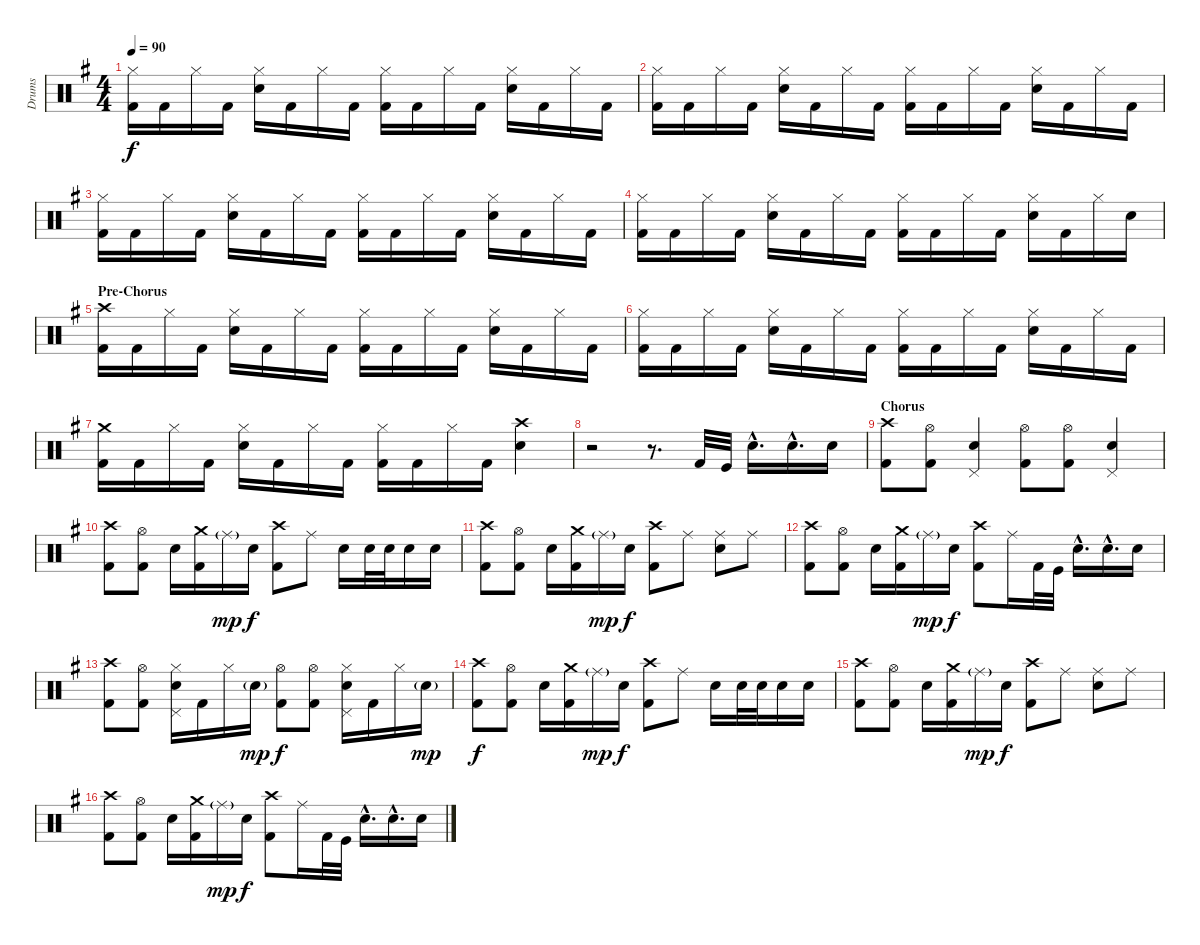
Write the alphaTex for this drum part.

\track ("Drums" "Drums") {instrument percussion}
\staff {score}
\articulation defaults
\ts (4 4)
\tempo 90
\clef neutral
\ks g
("Hi-Hat (closed)" "Kick (hit) 2").16{dy f} "Kick (hit) 2".16 "Hi-Hat (closed)".16 "Kick (hit) 2".16 ("Hi-Hat (closed)" "Electric Snare (hit)").16 "Kick (hit) 2".16 "Hi-Hat (closed)".16 "Kick (hit) 2".16 ("Hi-Hat (closed)" "Kick (hit) 2").16 "Kick (hit) 2".16 "Hi-Hat (closed)".16 "Kick (hit) 2".16 ("Hi-Hat (closed)" "Electric Snare (hit)").16 "Kick (hit) 2".16 "Hi-Hat (closed)".16 "Kick (hit) 2".16 |
("Hi-Hat (closed)" "Kick (hit) 2").16 "Kick (hit) 2".16 "Hi-Hat (closed)".16 "Kick (hit) 2".16 ("Hi-Hat (closed)" "Electric Snare (hit)").16 "Kick (hit) 2".16 "Hi-Hat (closed)".16 "Kick (hit) 2".16 ("Hi-Hat (closed)" "Kick (hit) 2").16 "Kick (hit) 2".16 "Hi-Hat (closed)".16 "Kick (hit) 2".16 ("Hi-Hat (closed)" "Electric Snare (hit)").16 "Kick (hit) 2".16 "Hi-Hat (closed)".16 "Kick (hit) 2".16 |
("Hi-Hat (closed)" "Kick (hit) 2").16 "Kick (hit) 2".16 "Hi-Hat (closed)".16 "Kick (hit) 2".16 ("Hi-Hat (closed)" "Electric Snare (hit)").16 "Kick (hit) 2".16 "Hi-Hat (closed)".16 "Kick (hit) 2".16 ("Hi-Hat (closed)" "Kick (hit) 2").16 "Kick (hit) 2".16 "Hi-Hat (closed)".16 "Kick (hit) 2".16 ("Hi-Hat (closed)" "Electric Snare (hit)").16 "Kick (hit) 2".16 "Hi-Hat (closed)".16 "Kick (hit) 2".16 |
("Hi-Hat (closed)" "Kick (hit) 2").16 "Kick (hit) 2".16 "Hi-Hat (closed)".16 "Kick (hit) 2".16 ("Hi-Hat (closed)" "Electric Snare (hit)").16 "Kick (hit) 2".16 "Hi-Hat (closed)".16 "Kick (hit) 2".16 ("Hi-Hat (closed)" "Kick (hit) 2").16 "Kick (hit) 2".16 "Hi-Hat (closed)".16 "Kick (hit) 2".16 ("Hi-Hat (closed)" "Electric Snare (hit)").16 "Kick (hit) 2".16 "Hi-Hat (closed)".16 "Electric Snare (hit)".16 |
\section ("" "Pre-Chorus")
("Crash high (hit)" "Kick (hit) 2").16 "Kick (hit) 2".16 "Hi-Hat (closed)".16 "Kick (hit) 2".16 ("Hi-Hat (closed)" "Electric Snare (hit)").16 "Kick (hit) 2".16 "Hi-Hat (closed)".16 "Kick (hit) 2".16 ("Hi-Hat (closed)" "Kick (hit) 2").16 "Kick (hit) 2".16 "Hi-Hat (closed)".16 "Kick (hit) 2".16 ("Hi-Hat (closed)" "Electric Snare (hit)").16 "Kick (hit) 2".16 "Hi-Hat (closed)".16 "Kick (hit) 2".16 |
("Hi-Hat (closed)" "Kick (hit) 2").16 "Kick (hit) 2".16 "Hi-Hat (closed)".16 "Kick (hit) 2".16 ("Hi-Hat (closed)" "Electric Snare (hit)").16 "Kick (hit) 2".16 "Hi-Hat (closed)".16 "Kick (hit) 2".16 ("Hi-Hat (closed)" "Kick (hit) 2").16 "Kick (hit) 2".16 "Hi-Hat (closed)".16 "Kick (hit) 2".16 ("Hi-Hat (closed)" "Electric Snare (hit)").16 "Kick (hit) 2".16 "Hi-Hat (closed)".16 "Kick (hit) 2".16 |
("Crash medium (hit)" "Kick (hit) 2").16 "Kick (hit) 2".16 "Hi-Hat (closed)".16 "Kick (hit) 2".16 ("Hi-Hat (closed)" "Electric Snare (hit)").16 "Kick (hit) 2".16 "Hi-Hat (closed)".16 "Kick (hit) 2".16 ("Hi-Hat (closed)" "Kick (hit) 2").16 "Kick (hit) 2".16 "Hi-Hat (closed)".16 "Kick (hit) 2".16 ("Crash high (hit)" "Electric Snare (hit)").4 |
r.2 r.8{d} "Kick (hit) 2".32{volume 16} "Kick (hit)".32 "Electric Snare (hit)"{hac}.16{d} "Electric Snare (hit)"{hac}.16{d} "Electric Snare (hit)".16 |
\section ("" "Chorus")
("Crash high (hit)" "Kick (hit) 2").8{volume 13} ("Hi-Hat (open)" "Kick (hit) 2").8 ("Electric Snare (hit)" "Pedal Hi-Hat (hit)").4 ("Hi-Hat (open)" "Kick (hit) 2").8 ("Hi-Hat (open)" "Kick (hit) 2").8 ("Electric Snare (hit)" "Pedal Hi-Hat (hit)").4 |
("Crash high (hit)" "Kick (hit) 2").8 ("Hi-Hat (open)" "Kick (hit) 2").8 "Electric Snare (hit)".16 ("Crash medium (hit)" "Kick (hit) 2").16 "Ride (middle)"{g}.16{dy mp} "Electric Snare (hit)".16{dy f} ("Crash high (hit)" "Kick (hit) 2").8 "Ride (middle)".8 "Electric Snare (hit)".16 "Electric Snare (hit)".32 "Electric Snare (hit)".32 "Electric Snare (hit)".16 "Electric Snare (hit)".16 |
("Crash high (hit)" "Kick (hit) 2").8 ("Hi-Hat (open)" "Kick (hit) 2").8 "Electric Snare (hit)".16 ("Crash medium (hit)" "Kick (hit) 2").16 "Ride (middle)"{g}.16{dy mp} "Electric Snare (hit)".16{dy f} ("Crash high (hit)" "Kick (hit) 2").8 "Ride (middle)".8 ("Ride (middle)" "Electric Snare (hit)").8 "Ride (middle)".8 |
("Crash high (hit)" "Kick (hit) 2").8 ("Hi-Hat (open)" "Kick (hit) 2").8 "Electric Snare (hit)".16 ("Crash medium (hit)" "Kick (hit) 2").16 "Ride (middle)"{g}.16{dy mp} "Electric Snare (hit)".16{dy f} ("Crash high (hit)" "Kick (hit) 2").8 "Ride (middle)".16 "Kick (hit) 2".32{volume 16} "Kick (hit)".32 "Electric Snare (hit)"{hac}.16{d} "Electric Snare (hit)"{hac}.16{d} "Electric Snare (hit)".16 |
("Crash high (hit)" "Kick (hit) 2").8{volume 13} ("Hi-Hat (open)" "Kick (hit) 2").8 ("Hi-Hat (closed)" "Electric Snare (hit)" "Pedal Hi-Hat (hit)").16 "Kick (hit) 2".16 "Hi-Hat (closed)".16 "Electric Snare (hit)"{g}.16{dy mp} ("Hi-Hat (open)" "Kick (hit) 2").8{dy f} ("Hi-Hat (open)" "Kick (hit) 2").8 ("Hi-Hat (closed)" "Electric Snare (hit)" "Pedal Hi-Hat (hit)").16 "Kick (hit) 2".16 "Hi-Hat (closed)".16 "Electric Snare (hit)"{g}.16{dy mp} |
("Crash high (hit)" "Kick (hit) 2").8{dy f} ("Hi-Hat (open)" "Kick (hit) 2").8 "Electric Snare (hit)".16 ("Crash medium (hit)" "Kick (hit) 2").16 "Ride (middle)"{g}.16{dy mp} "Electric Snare (hit)".16{dy f} ("Crash high (hit)" "Kick (hit) 2").8 "Ride (middle)".8 "Electric Snare (hit)".16 "Electric Snare (hit)".32 "Electric Snare (hit)".32 "Electric Snare (hit)".16 "Electric Snare (hit)".16 |
("Crash high (hit)" "Kick (hit) 2").8 ("Hi-Hat (open)" "Kick (hit) 2").8 "Electric Snare (hit)".16 ("Crash medium (hit)" "Kick (hit) 2").16 "Ride (middle)"{g}.16{dy mp} "Electric Snare (hit)".16{dy f} ("Crash high (hit)" "Kick (hit) 2").8 "Ride (middle)".8 ("Ride (middle)" "Electric Snare (hit)").8 "Ride (middle)".8 |
("Crash high (hit)" "Kick (hit) 2").8 ("Hi-Hat (open)" "Kick (hit) 2").8 "Electric Snare (hit)".16 ("Crash medium (hit)" "Kick (hit) 2").16 "Ride (middle)"{g}.16{dy mp} "Electric Snare (hit)".16{dy f} ("Crash high (hit)" "Kick (hit) 2").8 "Ride (middle)".16 "Kick (hit) 2".32{volume 16} "Kick (hit)".32 "Electric Snare (hit)"{hac}.16{d} "Electric Snare (hit)"{hac}.16{d} "Electric Snare (hit)".16
